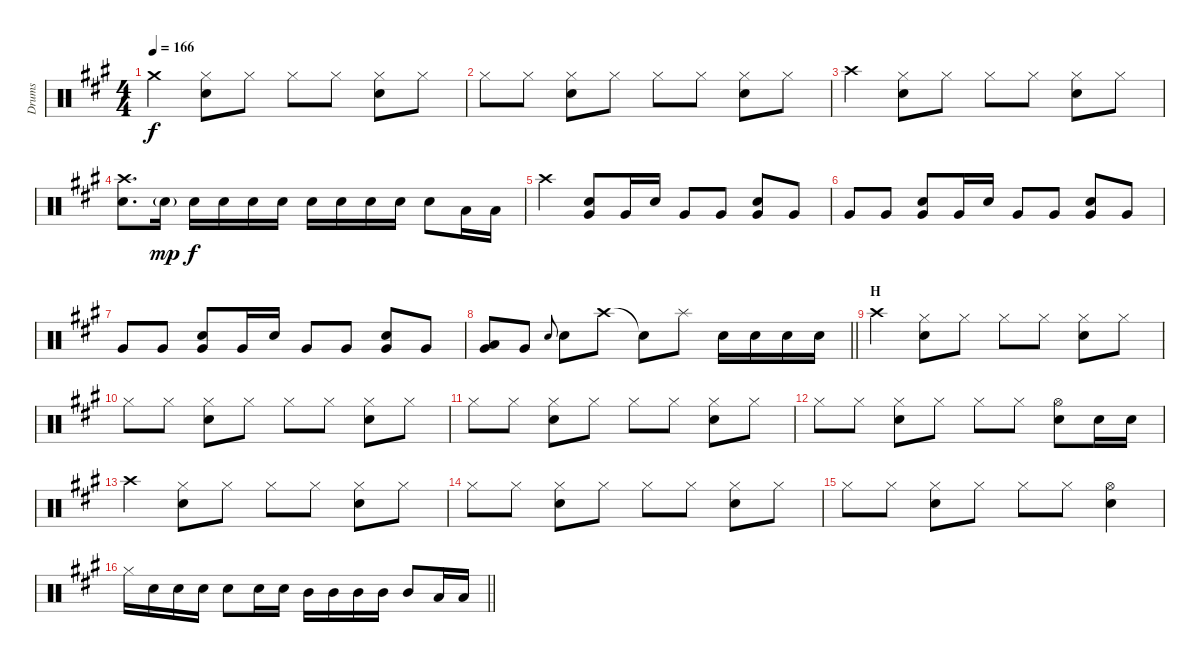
\track ("Drums" "Drums") {instrument percussion}
\staff {score}
\articulation defaults
\ts (4 4)
\tempo 166
\clef neutral
\ks a "Crash medium (hit)".4{dy f}
("Hi-Hat (closed)" "Snare (hit) 2").8 "Hi-Hat (closed)".8 "Hi-Hat (closed)".8 "Hi-Hat (closed)".8 ("Hi-Hat (closed)" "Snare (hit) 2").8 "Hi-Hat (closed)".8 |
"Hi-Hat (closed)".8 "Hi-Hat (closed)".8 ("Hi-Hat (closed)" "Snare (hit) 2").8 "Hi-Hat (closed)".8 "Hi-Hat (closed)".8 "Hi-Hat (closed)".8 ("Hi-Hat (closed)" "Snare (hit) 2").8 "Hi-Hat (closed)".8 |
"Crash high (hit)".4 ("Hi-Hat (closed)" "Snare (hit) 2").8 "Hi-Hat (closed)".8 "Hi-Hat (closed)".8 "Hi-Hat (closed)".8 ("Hi-Hat (closed)" "Snare (hit) 2").8 "Hi-Hat (closed)".8 |
("Crash high (hit)" "Snare (hit) 2").8{d} "Snare (hit) 2"{g}.16{dy mp} "Snare (hit) 2".16{dy f} "Snare (hit) 2".16 "Snare (hit) 2".16 "Snare (hit) 2".16 "Snare (hit) 2".16 "Snare (hit) 2".16 "Snare (hit) 2".16 "Snare (hit) 2".16 "Snare (hit) 2".8 "Low Tom (hit)".16 "Low Tom (hit)".16 |
"Crash high (hit)".4 ("Very Low Tom (hit)" "Snare (hit) 2").8 "Very Low Tom (hit)".16 "Snare (hit) 2".16 "Very Low Tom (hit)".8 "Very Low Tom (hit)".8 ("Very Low Tom (hit)" "Snare (hit) 2").8 "Very Low Tom (hit)".8 |
"Very Low Tom (hit)".8 "Very Low Tom (hit)".8 ("Very Low Tom (hit)" "Snare (hit) 2").8 "Very Low Tom (hit)".16 "Snare (hit) 2".16 "Very Low Tom (hit)".8 "Very Low Tom (hit)".8 ("Very Low Tom (hit)" "Snare (hit) 2").8 "Very Low Tom (hit)".8 |
"Very Low Tom (hit)".8 "Very Low Tom (hit)".8 ("Very Low Tom (hit)" "Snare (hit) 2").8 "Very Low Tom (hit)".16 "Snare (hit) 2".16 "Very Low Tom (hit)".8 "Very Low Tom (hit)".8 ("Very Low Tom (hit)" "Snare (hit) 2").8 "Very Low Tom (hit)".8 |
\barLineRight lightlight
("Very Low Tom (hit)" "Low Tom (hit)").8 "Very Low Tom (hit)".8 "Snare (hit) 2".8{gr onbeat} "Snare (hit) 2".8 "Crash high (hit)".8 "Snare (hit)"{t}.8 "Splash (hit)".8 "Snare (hit) 2".16 "Snare (hit) 2".16 "Snare (hit) 2".16 "Snare (hit) 2".16 |
\section ("" "H")
"Crash high (hit)".4 ("Hi-Hat (closed)" "Snare (hit) 2").8 "Hi-Hat (closed)".8 "Hi-Hat (closed)".8 "Hi-Hat (closed)".8 ("Hi-Hat (closed)" "Snare (hit) 2").8 "Hi-Hat (closed)".8 |
"Hi-Hat (closed)".8 "Hi-Hat (closed)".8 ("Hi-Hat (closed)" "Snare (hit) 2").8 "Hi-Hat (closed)".8 "Hi-Hat (closed)".8 "Hi-Hat (closed)".8 ("Hi-Hat (closed)" "Snare (hit) 2").8 "Hi-Hat (closed)".8 |
"Hi-Hat (closed)".8 "Hi-Hat (closed)".8 ("Hi-Hat (closed)" "Snare (hit) 2").8 "Hi-Hat (closed)".8 "Hi-Hat (closed)".8 "Hi-Hat (closed)".8 ("Hi-Hat (closed)" "Snare (hit) 2").8 "Hi-Hat (closed)".8 |
"Hi-Hat (closed)".8 "Hi-Hat (closed)".8 ("Hi-Hat (closed)" "Snare (hit) 2").8 "Hi-Hat (closed)".8 "Hi-Hat (closed)".8 "Hi-Hat (closed)".8 ("Hi-Hat (open)" "Snare (hit) 2").8 "Snare (hit) 2".16 "Snare (hit) 2".16 |
"Crash high (hit)".4 ("Hi-Hat (closed)" "Snare (hit) 2").8 "Hi-Hat (closed)".8 "Hi-Hat (closed)".8 "Hi-Hat (closed)".8 ("Hi-Hat (closed)" "Snare (hit) 2").8 "Hi-Hat (closed)".8 |
"Hi-Hat (closed)".8 "Hi-Hat (closed)".8 ("Hi-Hat (closed)" "Snare (hit) 2").8 "Hi-Hat (closed)".8 "Hi-Hat (closed)".8 "Hi-Hat (closed)".8 ("Hi-Hat (closed)" "Snare (hit) 2").8 "Hi-Hat (closed)".8 |
"Hi-Hat (closed)".8 "Hi-Hat (closed)".8 ("Hi-Hat (closed)" "Snare (hit) 2").8 "Hi-Hat (closed)".8 "Hi-Hat (closed)".8 "Hi-Hat (closed)".8 ("Hi-Hat (open)" "Snare (hit) 2").4 |
\barLineRight lightlight "Hi-Hat (closed)".16 "Snare (hit) 2".16 "Snare (hit) 2".16 "Snare (hit) 2".16 "Snare (hit) 2".8 "Snare (hit) 2".16 "Snare (hit) 2".16 "Mid Tom (hit)".16 "Mid Tom (hit)".16 "Mid Tom (hit)".16 "Mid Tom (hit)".16 "Mid Tom (hit)".8 "Low Tom (hit)".16 "Low Tom (hit)".16
